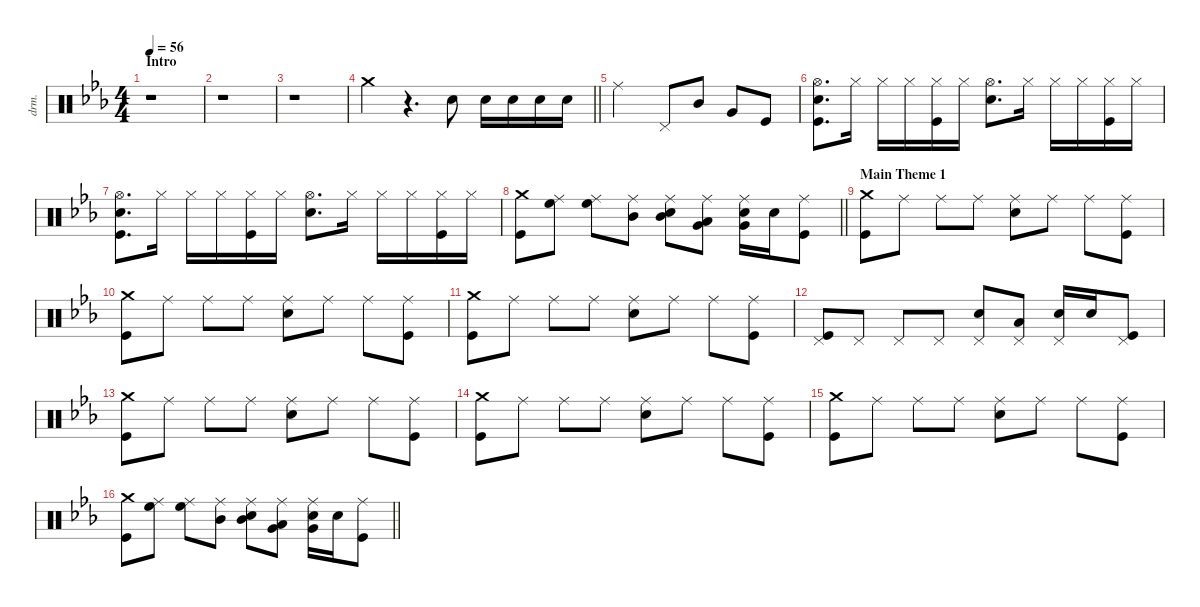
\defaultSystemsLayout 4
\hideDynamics
\bracketExtendMode groupsimilarinstruments
\otherSystemsTrackNameOrientation horizontal
\track ("Percussion" "drm.") {defaultSystemsLayout 4 instrument percussion}
\staff {score}
\articulation defaults
\ts (4 4)
\section ("" "Intro")
\tempo 56
\clef neutral
\ks cminor
r.1{dy f} |
r.1 |
r.1 |
\barLineRight lightlight "Crash medium (hit)"{acc forcenatural}.4
r.4{d} "Snare (hit) 2"{acc forcenatural}.8 "Snare (hit) 2"{acc forcenatural}.16 "Snare (hit) 2"{acc forcenatural}.16 "Snare (hit) 2"{acc forcenatural}.16 "Snare (hit) 2"{acc forcenatural}.16 |
"Ride (middle)"{acc forcenatural}.2 "Pedal Hi-Hat (hit)"{acc forcenatural}.8 "Mid Tom (hit)"{acc forcenatural}.8 "Very Low Tom (hit)"{acc forcenatural}.8 "Kick (hit)"{acc forcenatural}.8 |
("Hi-Hat (open)"{acc forcenatural} "Kick (hit)"{acc forcenatural} "Snare (hit) 2"{acc forcenatural}).8{d} "Hi-Hat (closed)"{acc forcenatural}.16 "Hi-Hat (closed)"{acc forcenatural}.16 "Hi-Hat (closed)"{acc forcenatural}.16 ("Kick (hit)"{acc forcenatural} "Hi-Hat (closed)"{acc forcenatural}).16 "Hi-Hat (closed)"{acc forcenatural}.16 ("Snare (hit) 2"{acc forcenatural} "Hi-Hat (open)"{acc forcenatural}).8{d} "Hi-Hat (closed)"{acc forcenatural}.16 "Hi-Hat (closed)"{acc forcenatural}.16 "Hi-Hat (closed)"{acc forcenatural}.16 ("Kick (hit)"{acc forcenatural} "Hi-Hat (closed)"{acc forcenatural}).16 "Hi-Hat (closed)"{acc forcenatural}.16 |
("Hi-Hat (open)"{acc forcenatural} "Kick (hit)"{acc forcenatural} "Snare (hit) 2"{acc forcenatural}).8{d} "Hi-Hat (closed)"{acc forcenatural}.16 "Hi-Hat (closed)"{acc forcenatural}.16 "Hi-Hat (closed)"{acc forcenatural}.16 ("Kick (hit)"{acc forcenatural} "Hi-Hat (closed)"{acc forcenatural}).16 "Hi-Hat (closed)"{acc forcenatural}.16 ("Snare (hit) 2"{acc forcenatural} "Hi-Hat (open)"{acc forcenatural}).8{d} "Hi-Hat (closed)"{acc forcenatural}.16 "Hi-Hat (closed)"{acc forcenatural}.16 "Hi-Hat (closed)"{acc forcenatural}.16 ("Kick (hit)"{acc forcenatural} "Hi-Hat (closed)"{acc forcenatural}).16 "Hi-Hat (closed)"{acc forcenatural}.16 |
\barLineRight lightlight
("Crash medium (hit)"{acc forcenatural} "Kick (hit)"{acc forcenatural}).8 ("High Floor Tom (hit)"{acc forcenatural} "Ride (middle)"{acc forcenatural}).8 ("High Floor Tom (hit)"{acc forcenatural} "Ride (middle)"{acc forcenatural}).8 ("Mid Tom (hit)"{acc forcenatural} "Ride (middle)"{acc forcenatural}).8 ("Mid Tom (hit)"{acc forcenatural} "Snare (hit) 2"{acc forcenatural} "Ride (middle)"{acc forcenatural}).8 ("Very Low Tom (hit)"{acc forcenatural} "Low Floor Tom (hit)"{acc forcenatural} "Ride (middle)"{acc forcenatural}).8 ("Very Low Tom (hit)"{acc forcenatural} "Snare (hit) 2"{acc forcenatural} "Ride (middle)"{acc forcenatural}).16 "Snare (hit) 2"{acc forcenatural}.16 ("Kick (hit)"{acc forcenatural} "Ride (middle)"{acc forcenatural}).8 |
\section ("" "Main Theme 1")
("Crash medium (hit)"{acc forcenatural} "Kick (hit)"{acc forcenatural}).8 "Ride (middle)"{acc forcenatural}.8 "Ride (middle)"{acc forcenatural}.8 "Ride (middle)"{acc forcenatural}.8 ("Snare (hit) 2"{acc forcenatural} "Ride (middle)"{acc forcenatural}).8 "Ride (middle)"{acc forcenatural}.8 "Ride (middle)"{acc forcenatural}.8 ("Kick (hit)"{acc forcenatural} "Ride (middle)"{acc forcenatural}).8 |
("Crash medium (hit)"{acc forcenatural} "Kick (hit)"{acc forcenatural}).8 "Ride (middle)"{acc forcenatural}.8 "Ride (middle)"{acc forcenatural}.8 "Ride (middle)"{acc forcenatural}.8 ("Snare (hit) 2"{acc forcenatural} "Ride (middle)"{acc forcenatural}).8 "Ride (middle)"{acc forcenatural}.8 "Ride (middle)"{acc forcenatural}.8 ("Kick (hit)"{acc forcenatural} "Ride (middle)"{acc forcenatural}).8 |
("Crash medium (hit)"{acc forcenatural} "Kick (hit)"{acc forcenatural}).8 "Ride (middle)"{acc forcenatural}.8 "Ride (middle)"{acc forcenatural}.8 "Ride (middle)"{acc forcenatural}.8 ("Snare (hit) 2"{acc forcenatural} "Ride (middle)"{acc forcenatural}).8 "Ride (middle)"{acc forcenatural}.8 "Ride (middle)"{acc forcenatural}.8 ("Kick (hit)"{acc forcenatural} "Ride (middle)"{acc forcenatural}).8 |
("Pedal Hi-Hat (hit)"{acc forcenatural} "Kick (hit)"{acc forcenatural}).8 "Pedal Hi-Hat (hit)"{acc forcenatural}.8 "Pedal Hi-Hat (hit)"{acc forcenatural}.8 "Pedal Hi-Hat (hit)"{acc forcenatural}.8 ("Snare (hit) 2"{acc forcenatural} "Pedal Hi-Hat (hit)"{acc forcenatural}).8 ("Low Floor Tom (hit)"{acc forcenatural} "Pedal Hi-Hat (hit)"{acc forcenatural}).8 ("Snare (hit) 2"{acc forcenatural} "Pedal Hi-Hat (hit)"{acc forcenatural}).16 "Snare (hit) 2"{acc forcenatural}.16 ("Kick (hit)"{acc forcenatural} "Pedal Hi-Hat (hit)"{acc forcenatural}).8 |
("Crash medium (hit)"{acc forcenatural} "Kick (hit)"{acc forcenatural}).8 "Ride (middle)"{acc forcenatural}.8 "Ride (middle)"{acc forcenatural}.8 "Ride (middle)"{acc forcenatural}.8 ("Snare (hit) 2"{acc forcenatural} "Ride (middle)"{acc forcenatural}).8 "Ride (middle)"{acc forcenatural}.8 "Ride (middle)"{acc forcenatural}.8 ("Kick (hit)"{acc forcenatural} "Ride (middle)"{acc forcenatural}).8 |
("Crash medium (hit)"{acc forcenatural} "Kick (hit)"{acc forcenatural}).8 "Ride (middle)"{acc forcenatural}.8 "Ride (middle)"{acc forcenatural}.8 "Ride (middle)"{acc forcenatural}.8 ("Snare (hit) 2"{acc forcenatural} "Ride (middle)"{acc forcenatural}).8 "Ride (middle)"{acc forcenatural}.8 "Ride (middle)"{acc forcenatural}.8 ("Kick (hit)"{acc forcenatural} "Ride (middle)"{acc forcenatural}).8 |
("Crash medium (hit)"{acc forcenatural} "Kick (hit)"{acc forcenatural}).8 "Ride (middle)"{acc forcenatural}.8 "Ride (middle)"{acc forcenatural}.8 "Ride (middle)"{acc forcenatural}.8 ("Snare (hit) 2"{acc forcenatural} "Ride (middle)"{acc forcenatural}).8 "Ride (middle)"{acc forcenatural}.8 "Ride (middle)"{acc forcenatural}.8 ("Kick (hit)"{acc forcenatural} "Ride (middle)"{acc forcenatural}).8 |
\barLineRight lightlight
("Crash medium (hit)"{acc forcenatural} "Kick (hit)"{acc forcenatural}).8 ("High Floor Tom (hit)"{acc forcenatural} "Ride (middle)"{acc forcenatural}).8 ("High Floor Tom (hit)"{acc forcenatural} "Ride (middle)"{acc forcenatural}).8 ("Mid Tom (hit)"{acc forcenatural} "Ride (middle)"{acc forcenatural}).8 ("Mid Tom (hit)"{acc forcenatural} "Snare (hit) 2"{acc forcenatural} "Ride (middle)"{acc forcenatural}).8 ("Very Low Tom (hit)"{acc forcenatural} "Low Floor Tom (hit)"{acc forcenatural} "Ride (middle)"{acc forcenatural}).8 ("Very Low Tom (hit)"{acc forcenatural} "Snare (hit) 2"{acc forcenatural} "Ride (middle)"{acc forcenatural}).16 "Snare (hit) 2"{acc forcenatural}.16 ("Kick (hit)"{acc forcenatural} "Ride (middle)"{acc forcenatural}).8
